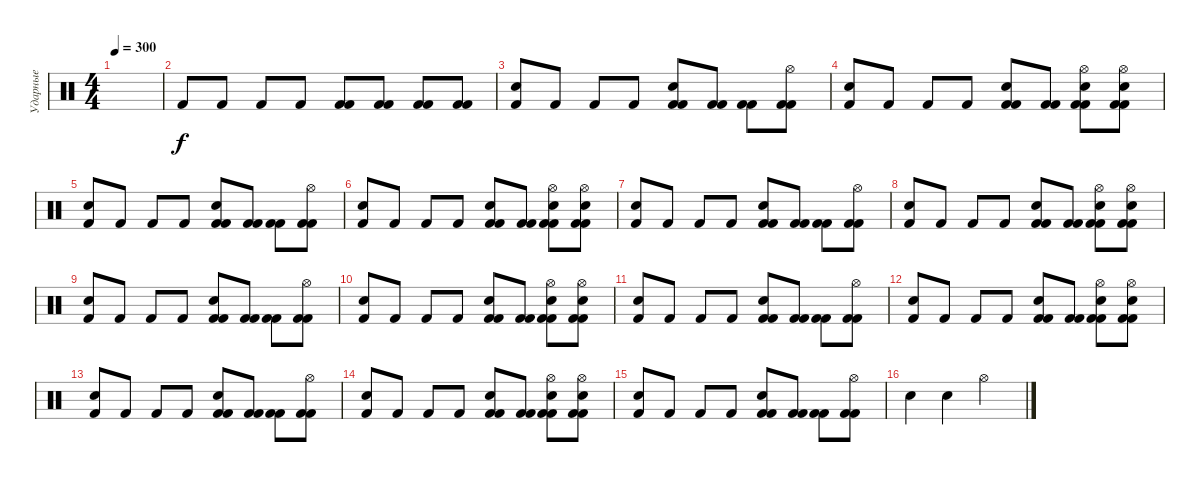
\track ("Ударные" "Ударные") {instrument percussion}
\staff {score}
\articulation defaults
\ts (4 4)
\tempo 300
\clef neutral
\ks c
|
"Kick (hit) 2".8 "Kick (hit) 2".8 "Kick (hit) 2".8 "Kick (hit) 2".8 ("Kick (hit) 2" "Kick (hit) 2").8 ("Kick (hit) 2" "Kick (hit) 2").8 ("Kick (hit) 2" "Kick (hit) 2").8 ("Kick (hit) 2" "Kick (hit) 2").8 |
("Kick (hit) 2" "Electric Snare (hit)").8 "Kick (hit) 2".8 "Kick (hit) 2".8 "Kick (hit) 2".8 ("Kick (hit) 2" "Kick (hit) 2" "Electric Snare (hit)").8 ("Kick (hit) 2" "Kick (hit) 2").8 ("Kick (hit) 2" "Kick (hit) 2").8 ("Kick (hit) 2" "Kick (hit) 2" "Hi-Hat (open)").8 |
("Kick (hit) 2" "Electric Snare (hit)").8 "Kick (hit) 2".8 "Kick (hit) 2".8 "Kick (hit) 2".8 ("Kick (hit) 2" "Kick (hit) 2" "Electric Snare (hit)").8 ("Kick (hit) 2" "Kick (hit) 2").8 ("Kick (hit) 2" "Kick (hit) 2" "Hi-Hat (open)" "Electric Snare (hit)").8 ("Kick (hit) 2" "Kick (hit) 2" "Hi-Hat (open)" "Electric Snare (hit)").8 |
("Kick (hit) 2" "Electric Snare (hit)").8 "Kick (hit) 2".8 "Kick (hit) 2".8 "Kick (hit) 2".8 ("Kick (hit) 2" "Kick (hit) 2" "Electric Snare (hit)").8 ("Kick (hit) 2" "Kick (hit) 2").8 ("Kick (hit) 2" "Kick (hit) 2").8 ("Kick (hit) 2" "Kick (hit) 2" "Hi-Hat (open)").8 |
("Kick (hit) 2" "Electric Snare (hit)").8 "Kick (hit) 2".8 "Kick (hit) 2".8 "Kick (hit) 2".8 ("Kick (hit) 2" "Kick (hit) 2" "Electric Snare (hit)").8 ("Kick (hit) 2" "Kick (hit) 2").8 ("Kick (hit) 2" "Kick (hit) 2" "Hi-Hat (open)" "Electric Snare (hit)").8 ("Kick (hit) 2" "Kick (hit) 2" "Hi-Hat (open)" "Electric Snare (hit)").8 |
("Kick (hit) 2" "Electric Snare (hit)").8 "Kick (hit) 2".8 "Kick (hit) 2".8 "Kick (hit) 2".8 ("Kick (hit) 2" "Kick (hit) 2" "Electric Snare (hit)").8 ("Kick (hit) 2" "Kick (hit) 2").8 ("Kick (hit) 2" "Kick (hit) 2").8 ("Kick (hit) 2" "Kick (hit) 2" "Hi-Hat (open)").8 |
("Kick (hit) 2" "Electric Snare (hit)").8 "Kick (hit) 2".8 "Kick (hit) 2".8 "Kick (hit) 2".8 ("Kick (hit) 2" "Kick (hit) 2" "Electric Snare (hit)").8 ("Kick (hit) 2" "Kick (hit) 2").8 ("Kick (hit) 2" "Kick (hit) 2" "Hi-Hat (open)" "Electric Snare (hit)").8 ("Kick (hit) 2" "Kick (hit) 2" "Hi-Hat (open)" "Electric Snare (hit)").8 |
("Kick (hit) 2" "Electric Snare (hit)").8 "Kick (hit) 2".8 "Kick (hit) 2".8 "Kick (hit) 2".8 ("Kick (hit) 2" "Kick (hit) 2" "Electric Snare (hit)").8 ("Kick (hit) 2" "Kick (hit) 2").8 ("Kick (hit) 2" "Kick (hit) 2").8 ("Kick (hit) 2" "Kick (hit) 2" "Hi-Hat (open)").8 |
("Kick (hit) 2" "Electric Snare (hit)").8 "Kick (hit) 2".8 "Kick (hit) 2".8 "Kick (hit) 2".8 ("Kick (hit) 2" "Kick (hit) 2" "Electric Snare (hit)").8 ("Kick (hit) 2" "Kick (hit) 2").8 ("Kick (hit) 2" "Kick (hit) 2" "Hi-Hat (open)" "Electric Snare (hit)").8 ("Kick (hit) 2" "Kick (hit) 2" "Hi-Hat (open)" "Electric Snare (hit)").8 |
("Kick (hit) 2" "Electric Snare (hit)").8 "Kick (hit) 2".8 "Kick (hit) 2".8 "Kick (hit) 2".8 ("Kick (hit) 2" "Kick (hit) 2" "Electric Snare (hit)").8 ("Kick (hit) 2" "Kick (hit) 2").8 ("Kick (hit) 2" "Kick (hit) 2").8 ("Kick (hit) 2" "Kick (hit) 2" "Hi-Hat (open)").8 |
("Kick (hit) 2" "Electric Snare (hit)").8 "Kick (hit) 2".8 "Kick (hit) 2".8 "Kick (hit) 2".8 ("Kick (hit) 2" "Kick (hit) 2" "Electric Snare (hit)").8 ("Kick (hit) 2" "Kick (hit) 2").8 ("Kick (hit) 2" "Kick (hit) 2" "Hi-Hat (open)" "Electric Snare (hit)").8 ("Kick (hit) 2" "Kick (hit) 2" "Hi-Hat (open)" "Electric Snare (hit)").8 |
("Kick (hit) 2" "Electric Snare (hit)").8 "Kick (hit) 2".8 "Kick (hit) 2".8 "Kick (hit) 2".8 ("Kick (hit) 2" "Kick (hit) 2" "Electric Snare (hit)").8 ("Kick (hit) 2" "Kick (hit) 2").8 ("Kick (hit) 2" "Kick (hit) 2").8 ("Kick (hit) 2" "Kick (hit) 2" "Hi-Hat (open)").8 |
("Kick (hit) 2" "Electric Snare (hit)").8 "Kick (hit) 2".8 "Kick (hit) 2".8 "Kick (hit) 2".8 ("Kick (hit) 2" "Kick (hit) 2" "Electric Snare (hit)").8 ("Kick (hit) 2" "Kick (hit) 2").8 ("Kick (hit) 2" "Kick (hit) 2" "Hi-Hat (open)" "Electric Snare (hit)").8 ("Kick (hit) 2" "Kick (hit) 2" "Hi-Hat (open)" "Electric Snare (hit)").8 |
("Kick (hit) 2" "Electric Snare (hit)").8 "Kick (hit) 2".8 "Kick (hit) 2".8 "Kick (hit) 2".8 ("Kick (hit) 2" "Kick (hit) 2" "Electric Snare (hit)").8 ("Kick (hit) 2" "Kick (hit) 2").8 ("Kick (hit) 2" "Kick (hit) 2").8 ("Kick (hit) 2" "Kick (hit) 2" "Hi-Hat (open)").8 |
"Electric Snare (hit)".4 "Electric Snare (hit)".4 "Hi-Hat (open)".2
